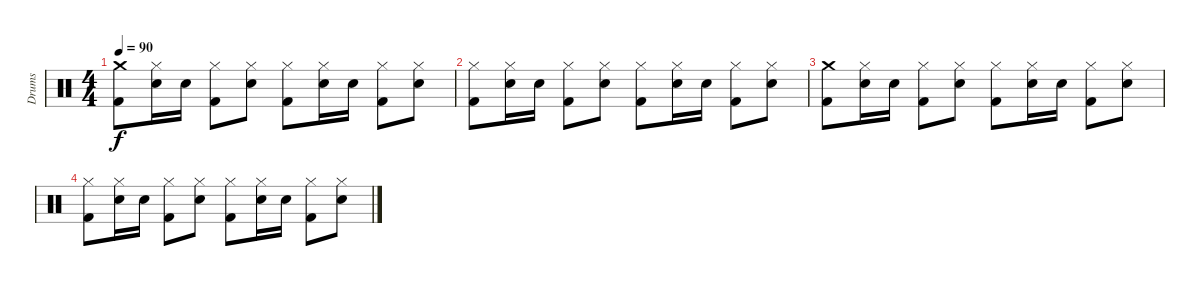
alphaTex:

\track ("Drums" "Drums") {instrument percussion}
\staff {score}
\articulation defaults
\ts (4 4)
\tempo 90
\clef neutral
\ks c
("Crash medium (hit)" "Kick (hit) 2").8{dy f} ("Snare (hit) 2" "Hi-Hat (closed)").16 "Snare (hit) 2".16 ("Kick (hit) 2" "Hi-Hat (closed)").8 ("Snare (hit) 2" "Hi-Hat (closed)").8 ("Hi-Hat (closed)" "Kick (hit) 2").8 ("Snare (hit) 2" "Hi-Hat (closed)").16 "Snare (hit) 2".16 ("Kick (hit) 2" "Hi-Hat (closed)").8 ("Snare (hit) 2" "Hi-Hat (closed)").8 |
("Hi-Hat (closed)" "Kick (hit) 2").8 ("Snare (hit) 2" "Hi-Hat (closed)").16 "Snare (hit) 2".16 ("Kick (hit) 2" "Hi-Hat (closed)").8 ("Snare (hit) 2" "Hi-Hat (closed)").8 ("Hi-Hat (closed)" "Kick (hit) 2").8 ("Snare (hit) 2" "Hi-Hat (closed)").16 "Snare (hit) 2".16 ("Kick (hit) 2" "Hi-Hat (closed)").8 ("Snare (hit) 2" "Hi-Hat (closed)").8 |
("Crash medium (hit)" "Kick (hit) 2").8 ("Snare (hit) 2" "Hi-Hat (closed)").16 "Snare (hit) 2".16 ("Kick (hit) 2" "Hi-Hat (closed)").8 ("Snare (hit) 2" "Hi-Hat (closed)").8 ("Hi-Hat (closed)" "Kick (hit) 2").8 ("Snare (hit) 2" "Hi-Hat (closed)").16 "Snare (hit) 2".16 ("Kick (hit) 2" "Hi-Hat (closed)").8 ("Snare (hit) 2" "Hi-Hat (closed)").8 |
("Hi-Hat (closed)" "Kick (hit) 2").8 ("Snare (hit) 2" "Hi-Hat (closed)").16 "Snare (hit) 2".16 ("Kick (hit) 2" "Hi-Hat (closed)").8 ("Snare (hit) 2" "Hi-Hat (closed)").8 ("Hi-Hat (closed)" "Kick (hit) 2").8 ("Snare (hit) 2" "Hi-Hat (closed)").16 "Snare (hit) 2".16 ("Kick (hit) 2" "Hi-Hat (closed)").8 ("Snare (hit) 2" "Hi-Hat (closed)").8
